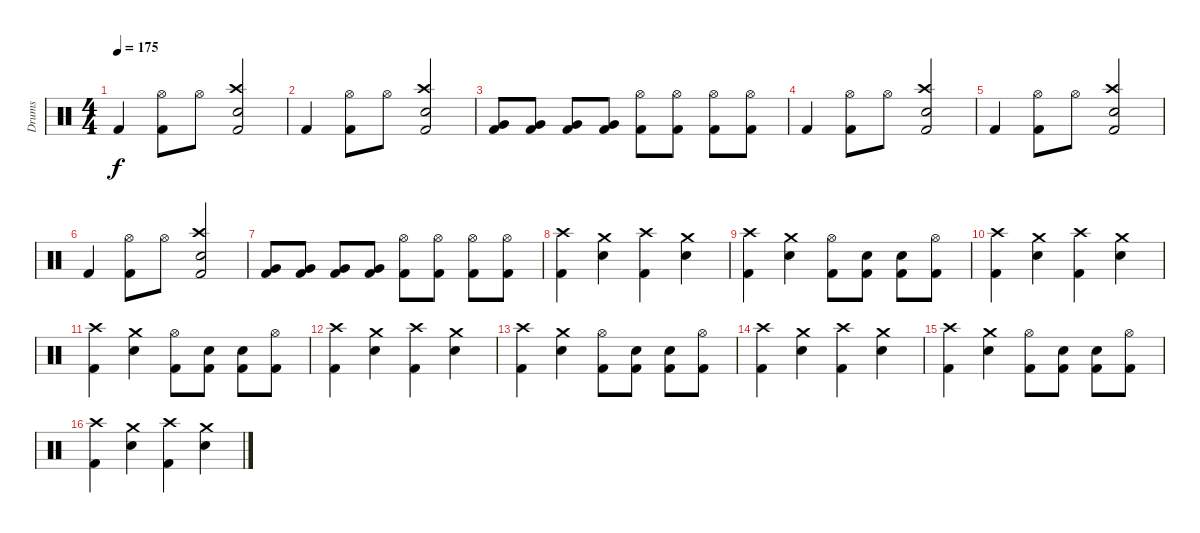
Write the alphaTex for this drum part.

\track ("Drums" "Drums") {instrument percussion}
\staff {score}
\articulation defaults
\ts (4 4)
\tempo 175
\clef neutral
\ks c "Kick (hit) 2".4{dy f}
("Hi-Hat (open)" "Kick (hit) 2").8 "Hi-Hat (open)".8 ("Crash high (hit)" "Snare (hit) 2" "Kick (hit) 2").2 |
"Kick (hit) 2".4 ("Hi-Hat (open)" "Kick (hit) 2").8 "Hi-Hat (open)".8 ("Crash high (hit)" "Snare (hit) 2" "Kick (hit) 2").2 |
("Very Low Tom (hit)" "Kick (hit) 2").8 ("Very Low Tom (hit)" "Kick (hit) 2").8 ("Very Low Tom (hit)" "Kick (hit) 2").8 ("Very Low Tom (hit)" "Kick (hit) 2").8 ("Hi-Hat (open)" "Kick (hit) 2").8 ("Hi-Hat (open)" "Kick (hit) 2").8 ("Hi-Hat (open)" "Kick (hit) 2").8 ("Hi-Hat (open)" "Kick (hit) 2").8 |
"Kick (hit) 2".4 ("Hi-Hat (open)" "Kick (hit) 2").8 "Hi-Hat (open)".8 ("Crash high (hit)" "Snare (hit) 2" "Kick (hit) 2").2 |
"Kick (hit) 2".4 ("Hi-Hat (open)" "Kick (hit) 2").8 "Hi-Hat (open)".8 ("Crash high (hit)" "Snare (hit) 2" "Kick (hit) 2").2 |
"Kick (hit) 2".4 ("Hi-Hat (open)" "Kick (hit) 2").8 "Hi-Hat (open)".8 ("Crash high (hit)" "Snare (hit) 2" "Kick (hit) 2").2 |
("Very Low Tom (hit)" "Kick (hit) 2").8 ("Very Low Tom (hit)" "Kick (hit) 2").8 ("Very Low Tom (hit)" "Kick (hit) 2").8 ("Very Low Tom (hit)" "Kick (hit) 2").8 ("Hi-Hat (open)" "Kick (hit) 2").8 ("Hi-Hat (open)" "Kick (hit) 2").8 ("Hi-Hat (open)" "Kick (hit) 2").8 ("Hi-Hat (open)" "Kick (hit) 2").8 |
("Crash high (hit)" "Kick (hit) 2").4 ("Crash medium (hit)" "Snare (hit) 2").4 ("Crash high (hit)" "Kick (hit) 2").4 ("Crash medium (hit)" "Snare (hit) 2").4 |
("Crash high (hit)" "Kick (hit) 2").4 ("Crash medium (hit)" "Snare (hit) 2").4 ("Hi-Hat (open)" "Kick (hit) 2").8 ("Snare (hit) 2" "Kick (hit) 2").8 ("Snare (hit) 2" "Kick (hit) 2").8 ("Hi-Hat (open)" "Kick (hit) 2").8 |
("Crash high (hit)" "Kick (hit) 2").4 ("Crash medium (hit)" "Snare (hit) 2").4 ("Crash high (hit)" "Kick (hit) 2").4 ("Crash medium (hit)" "Snare (hit) 2").4 |
("Crash high (hit)" "Kick (hit) 2").4 ("Crash medium (hit)" "Snare (hit) 2").4 ("Hi-Hat (open)" "Kick (hit) 2").8 ("Snare (hit) 2" "Kick (hit) 2").8 ("Snare (hit) 2" "Kick (hit) 2").8 ("Hi-Hat (open)" "Kick (hit) 2").8 |
("Crash high (hit)" "Kick (hit) 2").4 ("Crash medium (hit)" "Snare (hit) 2").4 ("Crash high (hit)" "Kick (hit) 2").4 ("Crash medium (hit)" "Snare (hit) 2").4 |
("Crash high (hit)" "Kick (hit) 2").4 ("Crash medium (hit)" "Snare (hit) 2").4 ("Hi-Hat (open)" "Kick (hit) 2").8 ("Snare (hit) 2" "Kick (hit) 2").8 ("Snare (hit) 2" "Kick (hit) 2").8 ("Hi-Hat (open)" "Kick (hit) 2").8 |
("Crash high (hit)" "Kick (hit) 2").4 ("Crash medium (hit)" "Snare (hit) 2").4 ("Crash high (hit)" "Kick (hit) 2").4 ("Crash medium (hit)" "Snare (hit) 2").4 |
("Crash high (hit)" "Kick (hit) 2").4 ("Crash medium (hit)" "Snare (hit) 2").4 ("Hi-Hat (open)" "Kick (hit) 2").8 ("Snare (hit) 2" "Kick (hit) 2").8 ("Snare (hit) 2" "Kick (hit) 2").8 ("Hi-Hat (open)" "Kick (hit) 2").8 |
("Crash high (hit)" "Kick (hit) 2").4 ("Crash medium (hit)" "Snare (hit) 2").4 ("Crash high (hit)" "Kick (hit) 2").4 ("Crash medium (hit)" "Snare (hit) 2").4
